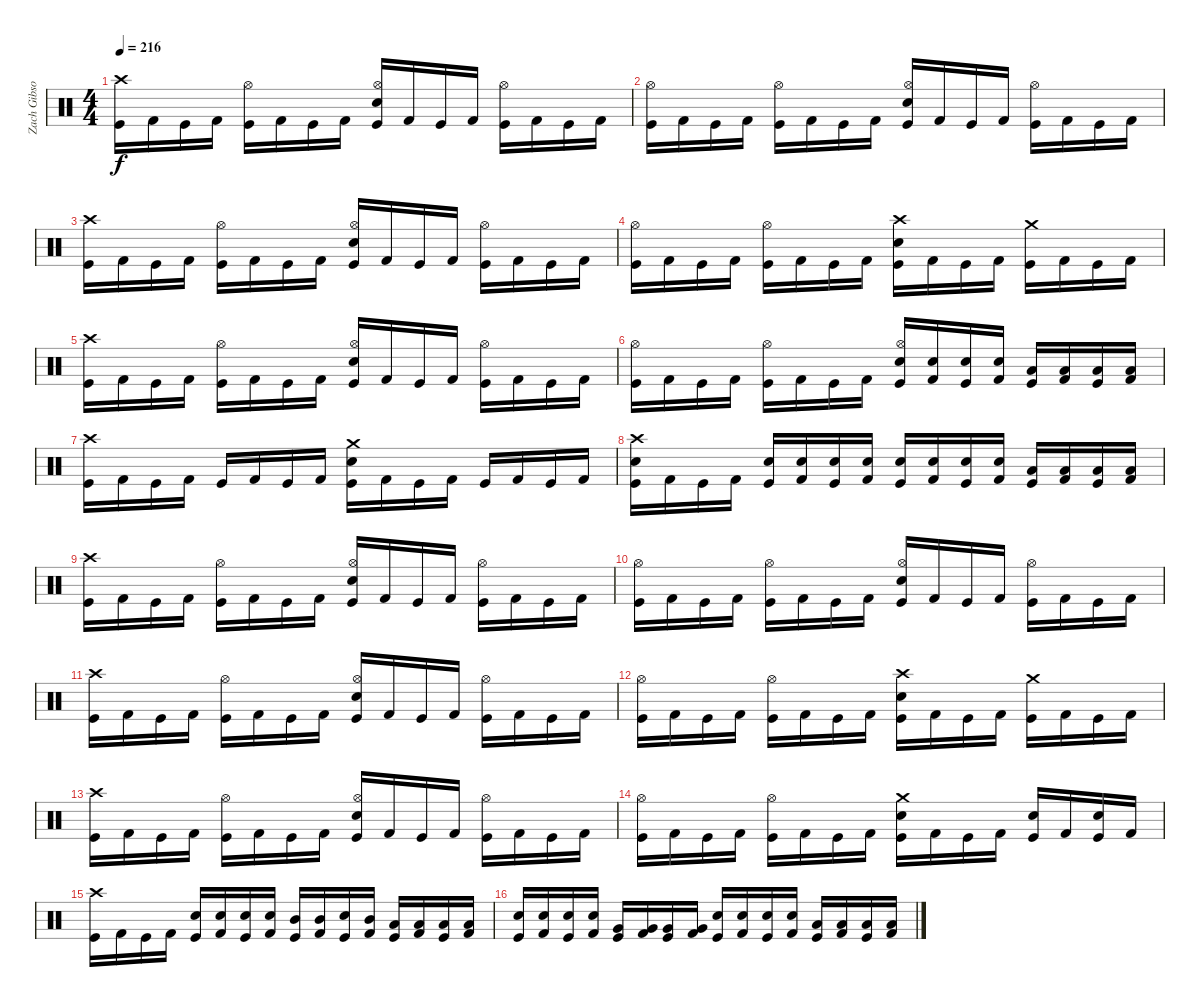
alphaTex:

\track ("Zach Gibson (Ex-Drums)" "Zach Gibso") {instrument percussion}
\staff {score}
\articulation defaults
\ts (4 4)
\tempo 216
\clef neutral
\ks c
("Crash high (hit)" "Kick (hit)").16{dy f} "Kick (hit) 2".16 "Kick (hit)".16 "Kick (hit) 2".16 ("Hi-Hat (open)" "Kick (hit)").16 "Kick (hit) 2".16 "Kick (hit)".16 "Kick (hit) 2".16 ("Hi-Hat (open)" "Snare (hit) 2" "Kick (hit)").16 "Kick (hit) 2".16 "Kick (hit)".16 "Kick (hit) 2".16 ("Hi-Hat (open)" "Kick (hit)").16 "Kick (hit) 2".16 "Kick (hit)".16 "Kick (hit) 2".16 |
("Hi-Hat (open)" "Kick (hit)").16 "Kick (hit) 2".16 "Kick (hit)".16 "Kick (hit) 2".16 ("Hi-Hat (open)" "Kick (hit)").16 "Kick (hit) 2".16 "Kick (hit)".16 "Kick (hit) 2".16 ("Hi-Hat (open)" "Snare (hit) 2" "Kick (hit)").16 "Kick (hit) 2".16 "Kick (hit)".16 "Kick (hit) 2".16 ("Hi-Hat (open)" "Kick (hit)").16 "Kick (hit) 2".16 "Kick (hit)".16 "Kick (hit) 2".16 |
("Crash high (hit)" "Kick (hit)").16 "Kick (hit) 2".16 "Kick (hit)".16 "Kick (hit) 2".16 ("Hi-Hat (open)" "Kick (hit)").16 "Kick (hit) 2".16 "Kick (hit)".16 "Kick (hit) 2".16 ("Hi-Hat (open)" "Snare (hit) 2" "Kick (hit)").16 "Kick (hit) 2".16 "Kick (hit)".16 "Kick (hit) 2".16 ("Hi-Hat (open)" "Kick (hit)").16 "Kick (hit) 2".16 "Kick (hit)".16 "Kick (hit) 2".16 |
("Hi-Hat (open)" "Kick (hit)").16 "Kick (hit) 2".16 "Kick (hit)".16 "Kick (hit) 2".16 ("Hi-Hat (open)" "Kick (hit)").16 "Kick (hit) 2".16 "Kick (hit)".16 "Kick (hit) 2".16 ("Crash high (hit)" "Snare (hit) 2" "Kick (hit)").16 "Kick (hit) 2".16 "Kick (hit)".16 "Kick (hit) 2".16 ("Crash medium (hit)" "Kick (hit)").16 "Kick (hit) 2".16 "Kick (hit)".16 "Kick (hit) 2".16 |
("Crash high (hit)" "Kick (hit)").16 "Kick (hit) 2".16 "Kick (hit)".16 "Kick (hit) 2".16 ("Hi-Hat (open)" "Kick (hit)").16 "Kick (hit) 2".16 "Kick (hit)".16 "Kick (hit) 2".16 ("Hi-Hat (open)" "Snare (hit) 2" "Kick (hit)").16 "Kick (hit) 2".16 "Kick (hit)".16 "Kick (hit) 2".16 ("Hi-Hat (open)" "Kick (hit)").16 "Kick (hit) 2".16 "Kick (hit)".16 "Kick (hit) 2".16 |
("Hi-Hat (open)" "Kick (hit)").16 "Kick (hit) 2".16 "Kick (hit)".16 "Kick (hit) 2".16 ("Hi-Hat (open)" "Kick (hit)").16 "Kick (hit) 2".16 "Kick (hit)".16 "Kick (hit) 2".16 ("Hi-Hat (open)" "Snare (hit) 2" "Kick (hit)").16 ("Snare (hit) 2" "Kick (hit) 2").16 ("Snare (hit) 2" "Kick (hit)").16 ("Snare (hit) 2" "Kick (hit) 2").16 ("Low Tom (hit)" "Kick (hit)").16 ("Low Tom (hit)" "Kick (hit) 2").16 ("Low Floor Tom (hit)" "Kick (hit)").16 ("Low Floor Tom (hit)" "Kick (hit) 2").16 |
("Crash high (hit)" "Kick (hit)").16 "Kick (hit) 2".16 "Kick (hit)".16 "Kick (hit) 2".16 "Kick (hit)".16 "Kick (hit) 2".16 "Kick (hit)".16 "Kick (hit) 2".16 ("Crash medium (hit)" "Snare (hit) 2" "Kick (hit)").16 "Kick (hit) 2".16 "Kick (hit)".16 "Kick (hit) 2".16 "Kick (hit)".16 "Kick (hit) 2".16 "Kick (hit)".16 "Kick (hit) 2".16 |
("Snare (hit) 2" "Crash high (hit)" "Kick (hit)").16 "Kick (hit) 2".16 "Kick (hit)".16 "Kick (hit) 2".16 ("Snare (hit) 2" "Kick (hit)").16 ("Snare (hit) 2" "Kick (hit) 2").16 ("Snare (hit) 2" "Kick (hit)").16 ("Snare (hit) 2" "Kick (hit) 2").16 ("Snare (hit) 2" "Kick (hit)").16 ("Snare (hit) 2" "Kick (hit) 2").16 ("Snare (hit) 2" "Kick (hit)").16 ("Snare (hit) 2" "Kick (hit) 2").16 ("Low Tom (hit)" "Kick (hit)").16 ("Low Tom (hit)" "Kick (hit) 2").16 ("Low Floor Tom (hit)" "Kick (hit)").16 ("Low Floor Tom (hit)" "Kick (hit) 2").16 |
("Crash high (hit)" "Kick (hit)").16 "Kick (hit) 2".16 "Kick (hit)".16 "Kick (hit) 2".16 ("Hi-Hat (open)" "Kick (hit)").16 "Kick (hit) 2".16 "Kick (hit)".16 "Kick (hit) 2".16 ("Hi-Hat (open)" "Snare (hit) 2" "Kick (hit)").16 "Kick (hit) 2".16 "Kick (hit)".16 "Kick (hit) 2".16 ("Hi-Hat (open)" "Kick (hit)").16 "Kick (hit) 2".16 "Kick (hit)".16 "Kick (hit) 2".16 |
("Hi-Hat (open)" "Kick (hit)").16 "Kick (hit) 2".16 "Kick (hit)".16 "Kick (hit) 2".16 ("Hi-Hat (open)" "Kick (hit)").16 "Kick (hit) 2".16 "Kick (hit)".16 "Kick (hit) 2".16 ("Hi-Hat (open)" "Snare (hit) 2" "Kick (hit)").16 "Kick (hit) 2".16 "Kick (hit)".16 "Kick (hit) 2".16 ("Hi-Hat (open)" "Kick (hit)").16 "Kick (hit) 2".16 "Kick (hit)".16 "Kick (hit) 2".16 |
("Crash high (hit)" "Kick (hit)").16 "Kick (hit) 2".16 "Kick (hit)".16 "Kick (hit) 2".16 ("Hi-Hat (open)" "Kick (hit)").16 "Kick (hit) 2".16 "Kick (hit)".16 "Kick (hit) 2".16 ("Hi-Hat (open)" "Snare (hit) 2" "Kick (hit)").16 "Kick (hit) 2".16 "Kick (hit)".16 "Kick (hit) 2".16 ("Hi-Hat (open)" "Kick (hit)").16 "Kick (hit) 2".16 "Kick (hit)".16 "Kick (hit) 2".16 |
("Hi-Hat (open)" "Kick (hit)").16 "Kick (hit) 2".16 "Kick (hit)".16 "Kick (hit) 2".16 ("Hi-Hat (open)" "Kick (hit)").16 "Kick (hit) 2".16 "Kick (hit)".16 "Kick (hit) 2".16 ("Crash high (hit)" "Snare (hit) 2" "Kick (hit)").16 "Kick (hit) 2".16 "Kick (hit)".16 "Kick (hit) 2".16 ("Crash medium (hit)" "Kick (hit)").16 "Kick (hit) 2".16 "Kick (hit)".16 "Kick (hit) 2".16 |
("Crash high (hit)" "Kick (hit)").16 "Kick (hit) 2".16 "Kick (hit)".16 "Kick (hit) 2".16 ("Hi-Hat (open)" "Kick (hit)").16 "Kick (hit) 2".16 "Kick (hit)".16 "Kick (hit) 2".16 ("Hi-Hat (open)" "Snare (hit) 2" "Kick (hit)").16 "Kick (hit) 2".16 "Kick (hit)".16 "Kick (hit) 2".16 ("Hi-Hat (open)" "Kick (hit)").16 "Kick (hit) 2".16 "Kick (hit)".16 "Kick (hit) 2".16 |
("Hi-Hat (open)" "Kick (hit)").16 "Kick (hit) 2".16 "Kick (hit)".16 "Kick (hit) 2".16 ("Hi-Hat (open)" "Kick (hit)").16 "Kick (hit) 2".16 "Kick (hit)".16 "Kick (hit) 2".16 ("Crash medium (hit)" "Snare (hit) 2" "Kick (hit)").16 "Kick (hit) 2".16 "Kick (hit)".16 "Kick (hit) 2".16 ("Snare (hit) 2" "Kick (hit)").16 "Kick (hit) 2".16 ("Snare (hit) 2" "Kick (hit)").16 "Kick (hit) 2".16 |
("Crash high (hit)" "Kick (hit)").16 "Kick (hit) 2".16 "Kick (hit)".16 "Kick (hit) 2".16 ("Snare (hit) 2" "Kick (hit)").16 ("Snare (hit) 2" "Kick (hit) 2").16 ("Snare (hit) 2" "Kick (hit)").16 ("Snare (hit) 2" "Kick (hit) 2").16 ("Mid Tom (hit)" "Kick (hit)").16 ("Mid Tom (hit)" "Kick (hit) 2").16 ("Snare (hit) 2" "Kick (hit)").16 ("Mid Tom (hit)" "Kick (hit) 2").16 ("Low Tom (hit)" "Kick (hit)").16 ("Low Tom (hit)" "Kick (hit) 2").16 ("Low Tom (hit)" "Kick (hit)").16 ("Low Tom (hit)" "Kick (hit) 2").16 |
("Snare (hit) 2" "Kick (hit)").16 ("Snare (hit) 2" "Kick (hit) 2").16 ("Snare (hit) 2" "Kick (hit)").16 ("Snare (hit) 2" "Kick (hit) 2").16 ("Very Low Tom (hit)" "Kick (hit)").16 ("Very Low Tom (hit)" "Kick (hit) 2").16 ("Very Low Tom (hit)" "Kick (hit)").16 ("Very Low Tom (hit)" "Kick (hit) 2").16 ("Snare (hit) 2" "Kick (hit)").16 ("Snare (hit) 2" "Kick (hit) 2").16 ("Snare (hit) 2" "Kick (hit)").16 ("Snare (hit) 2" "Kick (hit) 2").16 ("Low Floor Tom (hit)" "Kick (hit)").16 ("Low Floor Tom (hit)" "Kick (hit) 2").16 ("Low Floor Tom (hit)" "Kick (hit)").16 ("Low Floor Tom (hit)" "Kick (hit) 2").16
